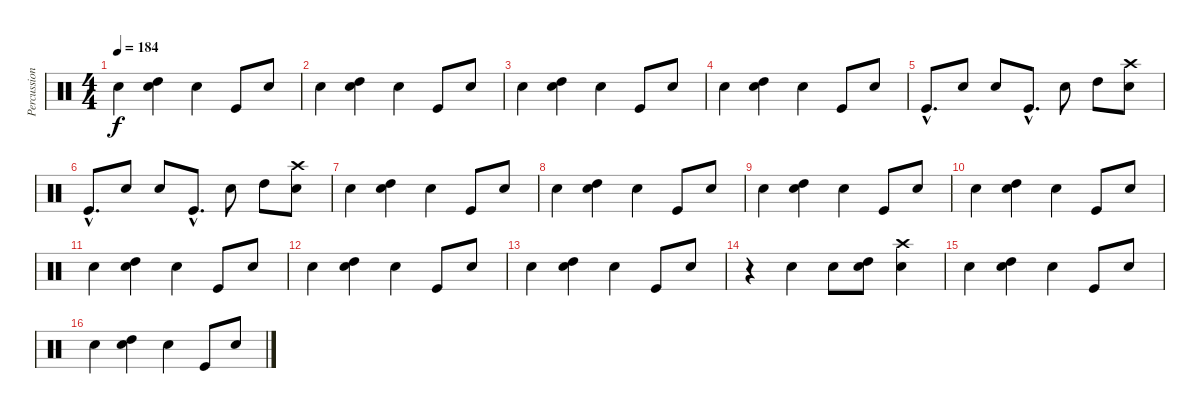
\track ("Percussions" "Percussion") {instrument percussion}
\staff {score}
\articulation defaults
\ts (4 4)
\tempo 184
\clef neutral
\ks c "Metronome (bell)".4{dy f}
("Metronome (bell)" "High Tom (hit)").4 "Metronome (bell)".4 "Kick (hit)".8 "Metronome (bell)".8 |
"Metronome (bell)".4 ("Metronome (bell)" "High Tom (hit)").4 "Metronome (bell)".4 "Kick (hit)".8 "Metronome (bell)".8 |
"Metronome (bell)".4 ("Metronome (bell)" "High Tom (hit)").4 "Metronome (bell)".4 "Kick (hit)".8 "Metronome (bell)".8 |
"Metronome (bell)".4 ("Metronome (bell)" "High Tom (hit)").4 "Metronome (bell)".4 "Kick (hit)".8 "Metronome (bell)".8 |
"Kick (hit)"{hac}.8{d} "Metronome (bell)".8 "Metronome (bell)".8 "Kick (hit)"{hac}.8{d} "Metronome (bell)".8 "High Tom (hit)".8 ("Metronome (bell)" "Crash high (hit)").8 |
"Kick (hit)"{hac}.8{d} "Metronome (bell)".8 "Metronome (bell)".8 "Kick (hit)"{hac}.8{d} "Metronome (bell)".8 "High Tom (hit)".8 ("Metronome (bell)" "Crash high (hit)").8 |
"Metronome (bell)".4 ("Metronome (bell)" "High Tom (hit)").4 "Metronome (bell)".4 "Kick (hit)".8 "Metronome (bell)".8 |
"Metronome (bell)".4 ("Metronome (bell)" "High Tom (hit)").4 "Metronome (bell)".4 "Kick (hit)".8 "Metronome (bell)".8 |
"Metronome (bell)".4 ("Metronome (bell)" "High Tom (hit)").4 "Metronome (bell)".4 "Kick (hit)".8 "Metronome (bell)".8 |
"Metronome (bell)".4 ("Metronome (bell)" "High Tom (hit)").4 "Metronome (bell)".4 "Kick (hit)".8 "Metronome (bell)".8 |
"Metronome (bell)".4 ("Metronome (bell)" "High Tom (hit)").4 "Metronome (bell)".4 "Kick (hit)".8 "Metronome (bell)".8 |
"Metronome (bell)".4 ("Metronome (bell)" "High Tom (hit)").4 "Metronome (bell)".4 "Kick (hit)".8 "Metronome (bell)".8 |
"Metronome (bell)".4 ("Metronome (bell)" "High Tom (hit)").4 "Metronome (bell)".4 "Kick (hit)".8 "Metronome (bell)".8 |
r.4 "Metronome (bell)".4 "Metronome (bell)".8 ("Metronome (bell)" "High Tom (hit)").8 ("Metronome (bell)" "Crash high (hit)").4 |
"Metronome (bell)".4 ("Metronome (bell)" "High Tom (hit)").4 "Metronome (bell)".4 "Kick (hit)".8 "Metronome (bell)".8 |
"Metronome (bell)".4 ("Metronome (bell)" "High Tom (hit)").4 "Metronome (bell)".4 "Kick (hit)".8 "Metronome (bell)".8
